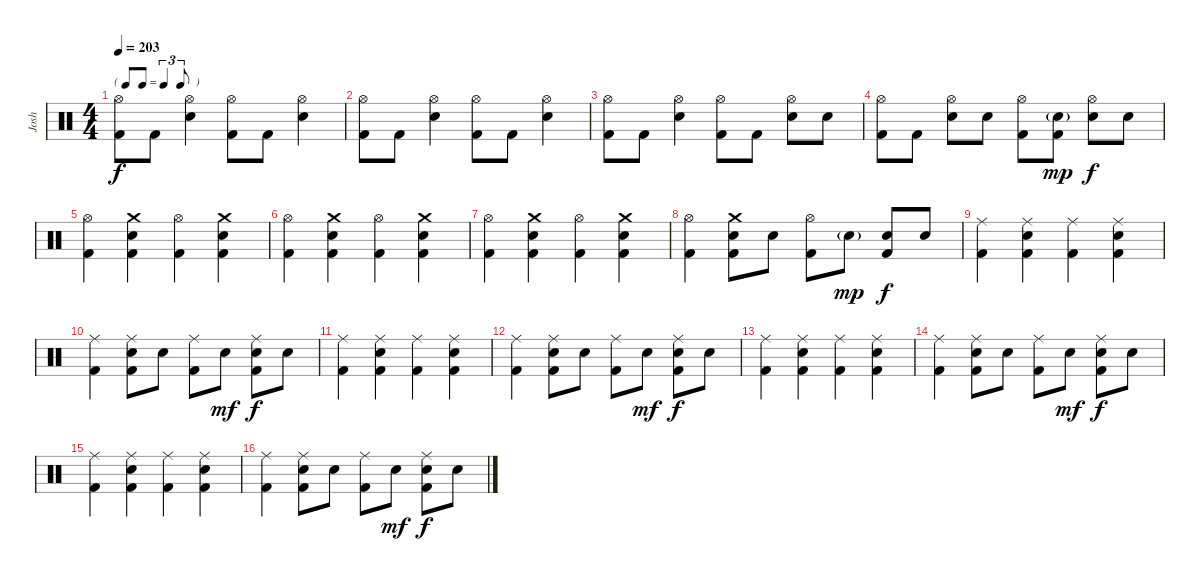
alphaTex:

\track ("Josh" "Josh") {instrument percussion}
\staff {score}
\articulation defaults
\ts (4 4)
\tf triplet8th
\tempo 203
\clef neutral
\ks c
("Hi-Hat (open)" "Kick (hit) 2").8{dy f} "Kick (hit) 2".8 ("Hi-Hat (open)" "Electric Snare (hit)").4 ("Hi-Hat (open)" "Kick (hit) 2").8 "Kick (hit) 2".8 ("Hi-Hat (open)" "Electric Snare (hit)").4 |
("Hi-Hat (open)" "Kick (hit) 2").8 "Kick (hit) 2".8 ("Hi-Hat (open)" "Electric Snare (hit)").4 ("Hi-Hat (open)" "Kick (hit) 2").8 "Kick (hit) 2".8 ("Hi-Hat (open)" "Electric Snare (hit)").4 |
("Hi-Hat (open)" "Kick (hit) 2").8 "Kick (hit) 2".8 ("Hi-Hat (open)" "Electric Snare (hit)").4 ("Hi-Hat (open)" "Kick (hit) 2").8 "Kick (hit) 2".8 ("Hi-Hat (open)" "Electric Snare (hit)").8 "Electric Snare (hit)".8 |
("Hi-Hat (open)" "Kick (hit) 2").8 "Kick (hit) 2".8 ("Hi-Hat (open)" "Electric Snare (hit)").8 "Electric Snare (hit)".8 ("Hi-Hat (open)" "Kick (hit) 2").8 ("Electric Snare (hit)"{g} "Kick (hit) 2").8{dy mp} ("Hi-Hat (open)" "Electric Snare (hit)").8{dy f} "Electric Snare (hit)".8 |
("Hi-Hat (open)" "Kick (hit) 2").4 ("Crash medium (hit)" "Electric Snare (hit)" "Kick (hit) 2").4 ("Hi-Hat (open)" "Kick (hit) 2").4 ("Crash medium (hit)" "Electric Snare (hit)" "Kick (hit) 2").4 |
("Hi-Hat (open)" "Kick (hit) 2").4 ("Crash medium (hit)" "Electric Snare (hit)" "Kick (hit) 2").4 ("Hi-Hat (open)" "Kick (hit) 2").4 ("Crash medium (hit)" "Electric Snare (hit)" "Kick (hit) 2").4 |
("Hi-Hat (open)" "Kick (hit) 2").4 ("Crash medium (hit)" "Electric Snare (hit)" "Kick (hit) 2").4 ("Hi-Hat (open)" "Kick (hit) 2").4 ("Crash medium (hit)" "Electric Snare (hit)" "Kick (hit) 2").4 |
("Hi-Hat (open)" "Kick (hit) 2").4 ("Crash medium (hit)" "Electric Snare (hit)" "Kick (hit) 2").8 "Electric Snare (hit)".8 ("Hi-Hat (open)" "Kick (hit) 2").8 "Electric Snare (hit)"{g}.8{dy mp} ("Electric Snare (hit)" "Kick (hit) 2").8{dy f} "Electric Snare (hit)".8 |
("Ride (middle)" "Kick (hit) 2").4 ("Ride (middle)" "Electric Snare (hit)" "Kick (hit) 2").4 ("Ride (middle)" "Kick (hit) 2").4 ("Ride (middle)" "Electric Snare (hit)" "Kick (hit) 2").4 |
("Ride (middle)" "Kick (hit) 2").4 ("Ride (middle)" "Electric Snare (hit)" "Kick (hit) 2").8 "Electric Snare (hit)".8 ("Ride (middle)" "Kick (hit) 2").8 "Electric Snare (hit)".8{dy mf} ("Ride (middle)" "Electric Snare (hit)" "Kick (hit) 2").8{dy f} "Electric Snare (hit)".8 |
("Ride (middle)" "Kick (hit) 2").4 ("Ride (middle)" "Electric Snare (hit)" "Kick (hit) 2").4 ("Ride (middle)" "Kick (hit) 2").4 ("Ride (middle)" "Electric Snare (hit)" "Kick (hit) 2").4 |
("Ride (middle)" "Kick (hit) 2").4 ("Ride (middle)" "Electric Snare (hit)" "Kick (hit) 2").8 "Electric Snare (hit)".8 ("Ride (middle)" "Kick (hit) 2").8 "Electric Snare (hit)".8{dy mf} ("Ride (middle)" "Electric Snare (hit)" "Kick (hit) 2").8{dy f} "Electric Snare (hit)".8 |
("Ride (middle)" "Kick (hit) 2").4 ("Ride (middle)" "Electric Snare (hit)" "Kick (hit) 2").4 ("Ride (middle)" "Kick (hit) 2").4 ("Ride (middle)" "Electric Snare (hit)" "Kick (hit) 2").4 |
("Ride (middle)" "Kick (hit) 2").4 ("Ride (middle)" "Electric Snare (hit)" "Kick (hit) 2").8 "Electric Snare (hit)".8 ("Ride (middle)" "Kick (hit) 2").8 "Electric Snare (hit)".8{dy mf} ("Ride (middle)" "Electric Snare (hit)" "Kick (hit) 2").8{dy f} "Electric Snare (hit)".8 |
("Ride (middle)" "Kick (hit) 2").4 ("Ride (middle)" "Electric Snare (hit)" "Kick (hit) 2").4 ("Ride (middle)" "Kick (hit) 2").4 ("Ride (middle)" "Electric Snare (hit)" "Kick (hit) 2").4 |
("Ride (middle)" "Kick (hit) 2").4 ("Ride (middle)" "Electric Snare (hit)" "Kick (hit) 2").8 "Electric Snare (hit)".8 ("Ride (middle)" "Kick (hit) 2").8 "Electric Snare (hit)".8{dy mf} ("Ride (middle)" "Electric Snare (hit)" "Kick (hit) 2").8{dy f} "Electric Snare (hit)".8
